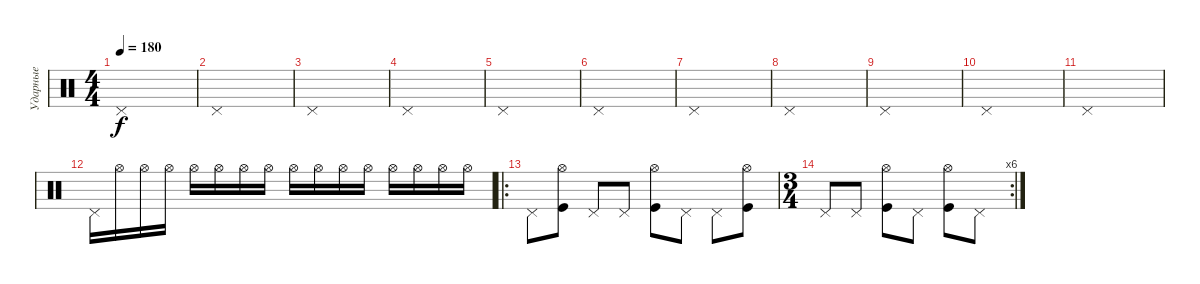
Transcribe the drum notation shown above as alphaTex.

\track ("Ударные" "Ударные") {instrument percussion}
\staff {score}
\articulation defaults
\ts (4 4)
\tempo 180
\clef neutral
\ks c "Pedal Hi-Hat (hit)".1{dy f}
|
"Pedal Hi-Hat (hit)".1 |
"Pedal Hi-Hat (hit)".1 |
"Pedal Hi-Hat (hit)".1 |
"Pedal Hi-Hat (hit)".1 |
"Pedal Hi-Hat (hit)".1 |
"Pedal Hi-Hat (hit)".1 |
"Pedal Hi-Hat (hit)".1 |
"Pedal Hi-Hat (hit)".1 |
"Pedal Hi-Hat (hit)".1 |
"Pedal Hi-Hat (hit)".1 |
"Pedal Hi-Hat (hit)".16{volume 2} "Hi-Hat (open)".16 "Hi-Hat (open)".16{volume 3} "Hi-Hat (open)".16 "Hi-Hat (open)".16{volume 4} "Hi-Hat (open)".16 "Hi-Hat (open)".16{volume 5} "Hi-Hat (open)".16 "Hi-Hat (open)".16{volume 6} "Hi-Hat (open)".16{volume 7} "Hi-Hat (open)".16 "Hi-Hat (open)".16{volume 8} "Hi-Hat (open)".16 "Hi-Hat (open)".16{volume 9} "Hi-Hat (open)".16 "Hi-Hat (open)".16 |
\ro "Pedal Hi-Hat (hit)".8
("Kick (hit)" "Hi-Hat (open)").8 "Pedal Hi-Hat (hit)".8 "Pedal Hi-Hat (hit)".8 ("Kick (hit)" "Hi-Hat (open)").8 "Pedal Hi-Hat (hit)".8 "Pedal Hi-Hat (hit)".8 ("Kick (hit)" "Hi-Hat (open)").8 |
\rc 6
\ts (3 4)
"Pedal Hi-Hat (hit)".8 "Pedal Hi-Hat (hit)".8 ("Kick (hit)" "Hi-Hat (open)").8 "Pedal Hi-Hat (hit)".8 ("Kick (hit)" "Hi-Hat (open)").8 "Pedal Hi-Hat (hit)".8
